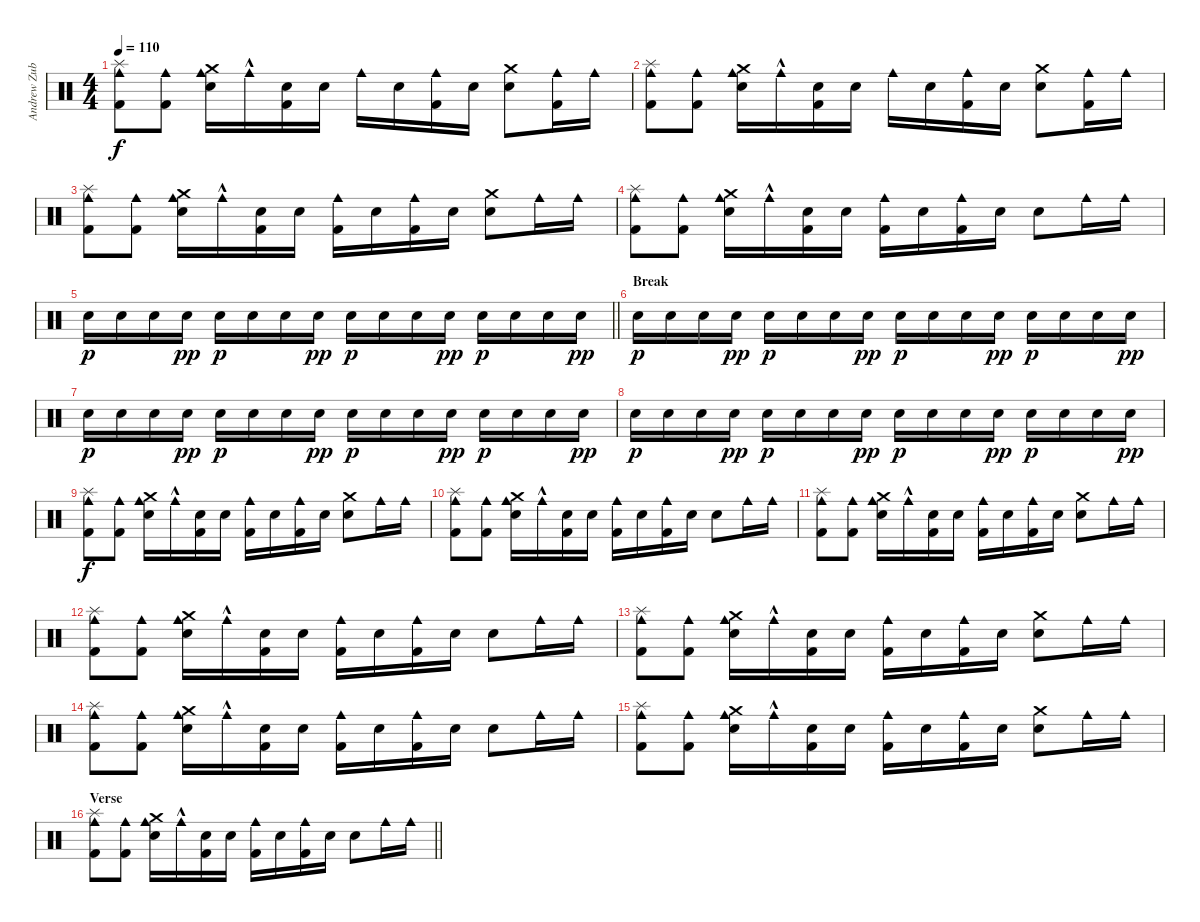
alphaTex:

\track ("Andrew Zubiszewski" "Andrew Zub") {instrument percussion}
\staff {score}
\articulation defaults
\ts (4 4)
\tempo 110
\clef neutral
\ks c
("Kick (hit) 2" "Splash (hit)" "Cowbell medium (hit)").8{dy f} ("Kick (hit) 2" "Cowbell medium (hit)").8 ("Electric Snare (hit)" "Cowbell medium (hit)" "Crash medium (hit)").16 "Cowbell medium (hit)"{hac}.16 ("Kick (hit) 2" "Electric Snare (hit)").16 "Electric Snare (hit)".16 "Cowbell medium (hit)".16 "Electric Snare (hit)".16 ("Kick (hit) 2" "Cowbell medium (hit)").16 "Electric Snare (hit)".16 ("Electric Snare (hit)" "Crash medium (hit)").8 ("Cowbell medium (hit)" "Kick (hit) 2").16 "Cowbell medium (hit)".16 |
("Kick (hit) 2" "Splash (hit)" "Cowbell medium (hit)").8 ("Kick (hit) 2" "Cowbell medium (hit)").8 ("Electric Snare (hit)" "Cowbell medium (hit)" "Crash medium (hit)").16 "Cowbell medium (hit)"{hac}.16 ("Kick (hit) 2" "Electric Snare (hit)").16 "Electric Snare (hit)".16 "Cowbell medium (hit)".16 "Electric Snare (hit)".16 ("Kick (hit) 2" "Cowbell medium (hit)").16 "Electric Snare (hit)".16 ("Electric Snare (hit)" "Crash medium (hit)").8 ("Cowbell medium (hit)" "Kick (hit) 2").16 "Cowbell medium (hit)".16 |
("Kick (hit) 2" "Splash (hit)" "Cowbell medium (hit)").8 ("Kick (hit) 2" "Cowbell medium (hit)").8 ("Electric Snare (hit)" "Cowbell medium (hit)" "Crash medium (hit)").16 "Cowbell medium (hit)"{hac}.16 ("Kick (hit) 2" "Electric Snare (hit)").16 "Electric Snare (hit)".16 ("Kick (hit) 2" "Cowbell medium (hit)").16 "Electric Snare (hit)".16 ("Kick (hit) 2" "Cowbell medium (hit)").16 "Electric Snare (hit)".16 ("Electric Snare (hit)" "Crash medium (hit)").8 "Cowbell medium (hit)".16 "Cowbell medium (hit)".16 |
("Kick (hit) 2" "Splash (hit)" "Cowbell medium (hit)").8 ("Kick (hit) 2" "Cowbell medium (hit)").8 ("Electric Snare (hit)" "Cowbell medium (hit)" "Crash medium (hit)").16 "Cowbell medium (hit)"{hac}.16 ("Kick (hit) 2" "Electric Snare (hit)").16 "Electric Snare (hit)".16 ("Kick (hit) 2" "Cowbell medium (hit)").16 "Electric Snare (hit)".16 ("Kick (hit) 2" "Cowbell medium (hit)").16 "Electric Snare (hit)".16 "Electric Snare (hit)".8 "Cowbell medium (hit)".16 "Cowbell medium (hit)".16 |
\barLineRight lightlight "Hand Clap (hit)".16{dy p} "Hand Clap (hit)".16 "Hand Clap (hit)".16 "Hand Clap (hit)".16{dy pp} "Hand Clap (hit)".16{dy p} "Hand Clap (hit)".16 "Hand Clap (hit)".16 "Hand Clap (hit)".16{dy pp} "Hand Clap (hit)".16{dy p} "Hand Clap (hit)".16 "Hand Clap (hit)".16 "Hand Clap (hit)".16{dy pp} "Hand Clap (hit)".16{dy p} "Hand Clap (hit)".16 "Hand Clap (hit)".16 "Hand Clap (hit)".16{dy pp}
|
\section ("" "Break")
"Hand Clap (hit)".16{dy p} "Hand Clap (hit)".16 "Hand Clap (hit)".16 "Hand Clap (hit)".16{dy pp} "Hand Clap (hit)".16{dy p} "Hand Clap (hit)".16 "Hand Clap (hit)".16 "Hand Clap (hit)".16{dy pp} "Hand Clap (hit)".16{dy p} "Hand Clap (hit)".16 "Hand Clap (hit)".16 "Hand Clap (hit)".16{dy pp} "Hand Clap (hit)".16{dy p} "Hand Clap (hit)".16 "Hand Clap (hit)".16 "Hand Clap (hit)".16{dy pp} |
"Hand Clap (hit)".16{dy p} "Hand Clap (hit)".16 "Hand Clap (hit)".16 "Hand Clap (hit)".16{dy pp} "Hand Clap (hit)".16{dy p} "Hand Clap (hit)".16 "Hand Clap (hit)".16 "Hand Clap (hit)".16{dy pp} "Hand Clap (hit)".16{dy p} "Hand Clap (hit)".16 "Hand Clap (hit)".16 "Hand Clap (hit)".16{dy pp} "Hand Clap (hit)".16{dy p} "Hand Clap (hit)".16 "Hand Clap (hit)".16 "Hand Clap (hit)".16{dy pp} |
"Hand Clap (hit)".16{dy p} "Hand Clap (hit)".16 "Hand Clap (hit)".16 "Hand Clap (hit)".16{dy pp} "Hand Clap (hit)".16{dy p} "Hand Clap (hit)".16 "Hand Clap (hit)".16 "Hand Clap (hit)".16{dy pp} "Hand Clap (hit)".16{dy p} "Hand Clap (hit)".16 "Hand Clap (hit)".16 "Hand Clap (hit)".16{dy pp} "Hand Clap (hit)".16{dy p} "Hand Clap (hit)".16 "Hand Clap (hit)".16 "Hand Clap (hit)".16{dy pp} |
("Kick (hit) 2" "Splash (hit)" "Cowbell medium (hit)").8{dy f} ("Kick (hit) 2" "Cowbell medium (hit)").8 ("Electric Snare (hit)" "Cowbell medium (hit)" "Crash medium (hit)").16 "Cowbell medium (hit)"{hac}.16 ("Kick (hit) 2" "Electric Snare (hit)").16 "Electric Snare (hit)".16 ("Kick (hit) 2" "Cowbell medium (hit)").16 "Electric Snare (hit)".16 ("Kick (hit) 2" "Cowbell medium (hit)").16 "Electric Snare (hit)".16 ("Electric Snare (hit)" "Crash medium (hit)").8 "Cowbell medium (hit)".16 "Cowbell medium (hit)".16 |
("Kick (hit) 2" "Splash (hit)" "Cowbell medium (hit)").8 ("Kick (hit) 2" "Cowbell medium (hit)").8 ("Electric Snare (hit)" "Cowbell medium (hit)" "Crash medium (hit)").16 "Cowbell medium (hit)"{hac}.16 ("Kick (hit) 2" "Electric Snare (hit)").16 "Electric Snare (hit)".16 ("Kick (hit) 2" "Cowbell medium (hit)").16 "Electric Snare (hit)".16 ("Kick (hit) 2" "Cowbell medium (hit)").16 "Electric Snare (hit)".16 "Electric Snare (hit)".8 "Cowbell medium (hit)".16 "Cowbell medium (hit)".16 |
("Kick (hit) 2" "Splash (hit)" "Cowbell medium (hit)").8 ("Kick (hit) 2" "Cowbell medium (hit)").8 ("Electric Snare (hit)" "Cowbell medium (hit)" "Crash medium (hit)").16 "Cowbell medium (hit)"{hac}.16 ("Kick (hit) 2" "Electric Snare (hit)").16 "Electric Snare (hit)".16 ("Kick (hit) 2" "Cowbell medium (hit)").16 "Electric Snare (hit)".16 ("Kick (hit) 2" "Cowbell medium (hit)").16 "Electric Snare (hit)".16 ("Electric Snare (hit)" "Crash medium (hit)").8 "Cowbell medium (hit)".16 "Cowbell medium (hit)".16 |
("Kick (hit) 2" "Splash (hit)" "Cowbell medium (hit)").8 ("Kick (hit) 2" "Cowbell medium (hit)").8 ("Electric Snare (hit)" "Cowbell medium (hit)" "Crash medium (hit)").16 "Cowbell medium (hit)"{hac}.16 ("Kick (hit) 2" "Electric Snare (hit)").16 "Electric Snare (hit)".16 ("Kick (hit) 2" "Cowbell medium (hit)").16 "Electric Snare (hit)".16 ("Kick (hit) 2" "Cowbell medium (hit)").16 "Electric Snare (hit)".16 "Electric Snare (hit)".8 "Cowbell medium (hit)".16 "Cowbell medium (hit)".16 |
("Kick (hit) 2" "Splash (hit)" "Cowbell medium (hit)").8 ("Kick (hit) 2" "Cowbell medium (hit)").8 ("Electric Snare (hit)" "Cowbell medium (hit)" "Crash medium (hit)").16 "Cowbell medium (hit)"{hac}.16 ("Kick (hit) 2" "Electric Snare (hit)").16 "Electric Snare (hit)".16 ("Kick (hit) 2" "Cowbell medium (hit)").16 "Electric Snare (hit)".16 ("Kick (hit) 2" "Cowbell medium (hit)").16 "Electric Snare (hit)".16 ("Electric Snare (hit)" "Crash medium (hit)").8 "Cowbell medium (hit)".16 "Cowbell medium (hit)".16 |
("Kick (hit) 2" "Splash (hit)" "Cowbell medium (hit)").8 ("Kick (hit) 2" "Cowbell medium (hit)").8 ("Electric Snare (hit)" "Cowbell medium (hit)" "Crash medium (hit)").16 "Cowbell medium (hit)"{hac}.16 ("Kick (hit) 2" "Electric Snare (hit)").16 "Electric Snare (hit)".16 ("Kick (hit) 2" "Cowbell medium (hit)").16 "Electric Snare (hit)".16 ("Kick (hit) 2" "Cowbell medium (hit)").16 "Electric Snare (hit)".16 "Electric Snare (hit)".8 "Cowbell medium (hit)".16 "Cowbell medium (hit)".16 |
("Kick (hit) 2" "Splash (hit)" "Cowbell medium (hit)").8 ("Kick (hit) 2" "Cowbell medium (hit)").8 ("Electric Snare (hit)" "Cowbell medium (hit)" "Crash medium (hit)").16 "Cowbell medium (hit)"{hac}.16 ("Kick (hit) 2" "Electric Snare (hit)").16 "Electric Snare (hit)".16 ("Kick (hit) 2" "Cowbell medium (hit)").16 "Electric Snare (hit)".16 ("Kick (hit) 2" "Cowbell medium (hit)").16 "Electric Snare (hit)".16 ("Electric Snare (hit)" "Crash medium (hit)").8 "Cowbell medium (hit)".16 "Cowbell medium (hit)".16 |
\section ("" "Verse")
\barLineRight lightlight
("Kick (hit) 2" "Splash (hit)" "Cowbell medium (hit)").8 ("Kick (hit) 2" "Cowbell medium (hit)").8 ("Electric Snare (hit)" "Cowbell medium (hit)" "Crash medium (hit)").16 "Cowbell medium (hit)"{hac}.16 ("Kick (hit) 2" "Electric Snare (hit)").16 "Electric Snare (hit)".16 ("Kick (hit) 2" "Cowbell medium (hit)").16 "Electric Snare (hit)".16 ("Kick (hit) 2" "Cowbell medium (hit)").16 "Electric Snare (hit)".16 "Electric Snare (hit)".8 "Cowbell medium (hit)".16 "Cowbell medium (hit)".16
